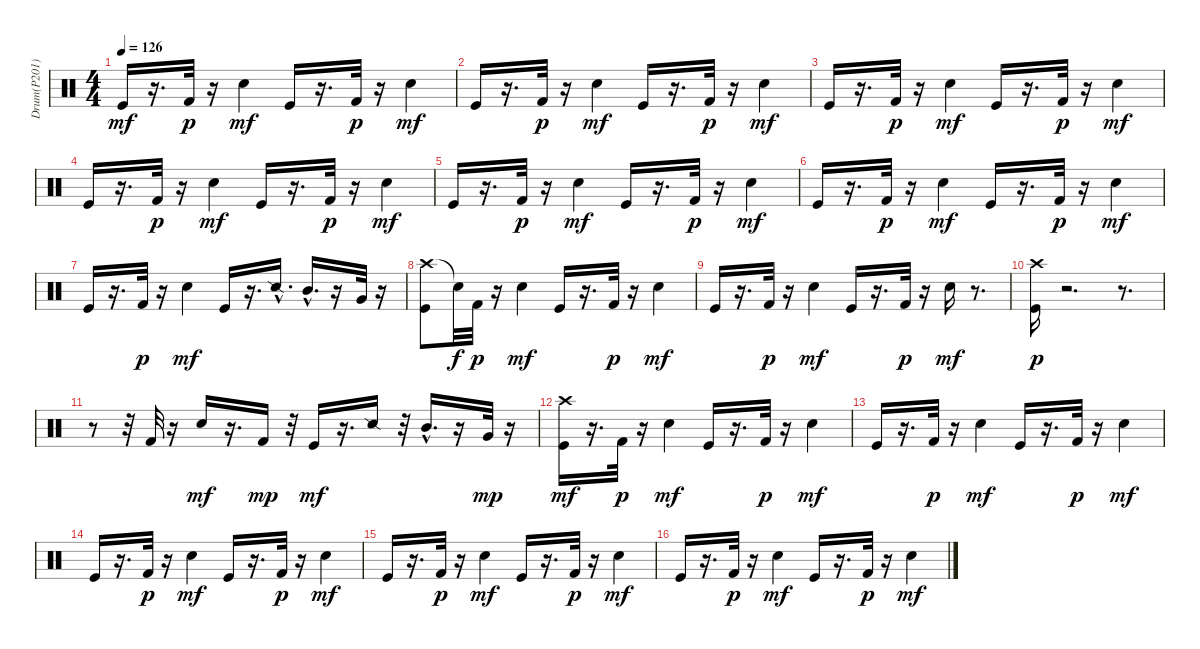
\track ("Drum(P201)" "Drum(P201)") {instrument percussion}
\staff {score}
\articulation defaults
\ts (4 4)
\tempo 126
\clef neutral
\ks c "Kick (hit)".16{dy mf}
r.16{d} "Kick (hit) 2".32{dy p} r.16 "Snare (hit) 2".4{dy mf} "Kick (hit)".16 r.16{d} "Kick (hit) 2".32{dy p} r.16 "Snare (hit) 2".4{dy mf} |
"Kick (hit)".16 r.16{d} "Kick (hit) 2".32{dy p} r.16 "Snare (hit) 2".4{dy mf} "Kick (hit)".16 r.16{d} "Kick (hit) 2".32{dy p} r.16 "Snare (hit) 2".4{dy mf} |
"Kick (hit)".16 r.16{d} "Kick (hit) 2".32{dy p} r.16 "Snare (hit) 2".4{dy mf} "Kick (hit)".16 r.16{d} "Kick (hit) 2".32{dy p} r.16 "Snare (hit) 2".4{dy mf} |
"Kick (hit)".16 r.16{d} "Kick (hit) 2".32{dy p} r.16 "Snare (hit) 2".4{dy mf} "Kick (hit)".16 r.16{d} "Kick (hit) 2".32{dy p} r.16 "Snare (hit) 2".4{dy mf} |
"Kick (hit)".16 r.16{d} "Kick (hit) 2".32{dy p} r.16 "Snare (hit) 2".4{dy mf} "Kick (hit)".16 r.16{d} "Kick (hit) 2".32{dy p} r.16 "Snare (hit) 2".4{dy mf} |
"Kick (hit)".16 r.16{d} "Kick (hit) 2".32{dy p} r.16 "Snare (hit) 2".4{dy mf} "Kick (hit)".16 r.16{d} "Kick (hit) 2".32{dy p} r.16 "Snare (hit) 2".4{dy mf} |
"Kick (hit)".16 r.16{d} "Kick (hit) 2".32{dy p} r.16 "Snare (hit) 2".4{dy mf} "Kick (hit)".16 r.16{d} "Snare (side stick) 2"{hac}.16{d} "Mid Tom (hit)"{hac}.16{d} r.16 "Very Low Tom (hit)".32 r.16 |
("Crash high (hit)" "Kick (hit)").8 "Snare (hit)"{t}.32{dy f} "Kick (hit) 2".32{dy p} r.16 "Snare (hit) 2".4{dy mf} "Kick (hit)".16 r.16{d} "Kick (hit) 2".32{dy p} r.16 "Snare (hit) 2".4{dy mf} |
"Kick (hit)".16 r.16{d} "Kick (hit) 2".32{dy p} r.16 "Snare (hit) 2".4{dy mf} "Kick (hit)".16 r.16{d} "Kick (hit) 2".32{dy p} r.16 "Snare (hit) 2".16{dy mf} r.8{d} |
("Kick (hit)" "Crash high (hit)").16{dy p} r.2{d} r.8{d} |
r.8 r.32 "Kick (hit) 2".32 r.16 "Snare (hit) 2".16{dy mf} r.16{d} "Kick (hit) 2".16{dy mp} r.32 "Kick (hit)".16{dy mf} r.16{d} "Snare (side stick) 2".16 r.32 "Mid Tom (hit)"{hac}.16{d} r.16 "Very Low Tom (hit)".32{dy mp} r.16 |
("Crash high (hit)" "Kick (hit)").16{dy mf} r.16{d} "Kick (hit) 2".32{dy p} r.16 "Snare (hit) 2".4{dy mf} "Kick (hit)".16 r.16{d} "Kick (hit) 2".32{dy p} r.16 "Snare (hit) 2".4{dy mf} |
"Kick (hit)".16 r.16{d} "Kick (hit) 2".32{dy p} r.16 "Snare (hit) 2".4{dy mf} "Kick (hit)".16 r.16{d} "Kick (hit) 2".32{dy p} r.16 "Snare (hit) 2".4{dy mf} |
"Kick (hit)".16 r.16{d} "Kick (hit) 2".32{dy p} r.16 "Snare (hit) 2".4{dy mf} "Kick (hit)".16 r.16{d} "Kick (hit) 2".32{dy p} r.16 "Snare (hit) 2".4{dy mf} |
"Kick (hit)".16 r.16{d} "Kick (hit) 2".32{dy p} r.16 "Snare (hit) 2".4{dy mf} "Kick (hit)".16 r.16{d} "Kick (hit) 2".32{dy p} r.16 "Snare (hit) 2".4{dy mf} |
"Kick (hit)".16 r.16{d} "Kick (hit) 2".32{dy p} r.16 "Snare (hit) 2".4{dy mf} "Kick (hit)".16 r.16{d} "Kick (hit) 2".32{dy p} r.16 "Snare (hit) 2".4{dy mf}
